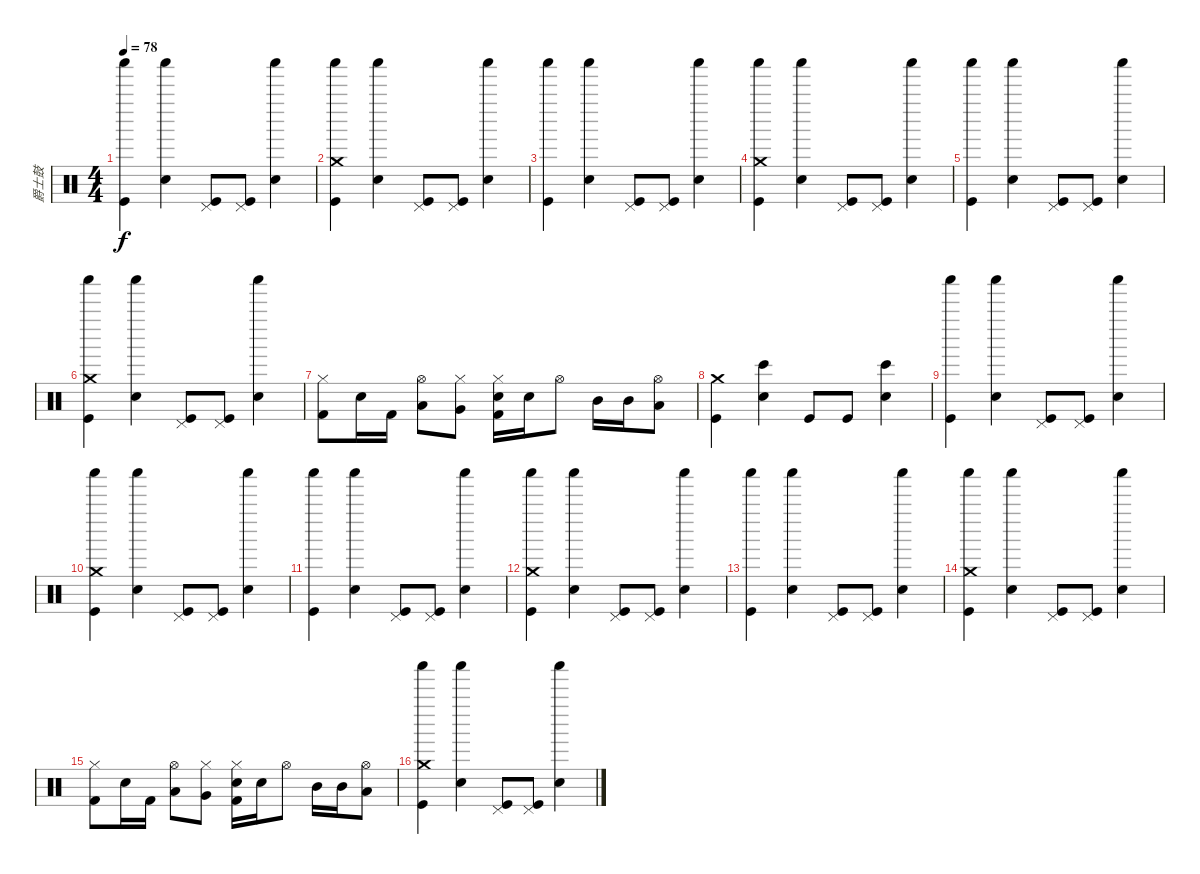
\track ("爵士鼓" "爵士鼓") {instrument percussion}
\staff {score}
\articulation defaults
\ts (4 4)
\tempo 78
\clef neutral
\ks c
("Shaker (hit)" "Kick (hit)").4{dy f} ("Shaker (hit)" "Snare (hit) 2").4 ("Pedal Hi-Hat (hit)" "Kick (hit)").8 ("Pedal Hi-Hat (hit)" "Kick (hit)").8 ("Shaker (hit)" "Snare (hit) 2").4 |
("Crash medium (hit)" "Shaker (hit)" "Kick (hit)").4 ("Shaker (hit)" "Snare (hit) 2").4 ("Pedal Hi-Hat (hit)" "Kick (hit)").8 ("Pedal Hi-Hat (hit)" "Kick (hit)").8 ("Shaker (hit)" "Snare (hit) 2").4 |
("Shaker (hit)" "Kick (hit)").4 ("Shaker (hit)" "Snare (hit) 2").4 ("Pedal Hi-Hat (hit)" "Kick (hit)").8 ("Pedal Hi-Hat (hit)" "Kick (hit)").8 ("Shaker (hit)" "Snare (hit) 2").4 |
("Crash medium (hit)" "Shaker (hit)" "Kick (hit)").4 ("Shaker (hit)" "Snare (hit) 2").4 ("Pedal Hi-Hat (hit)" "Kick (hit)").8 ("Pedal Hi-Hat (hit)" "Kick (hit)").8 ("Shaker (hit)" "Snare (hit) 2").4 |
("Shaker (hit)" "Kick (hit)").4 ("Shaker (hit)" "Snare (hit) 2").4 ("Pedal Hi-Hat (hit)" "Kick (hit)").8 ("Pedal Hi-Hat (hit)" "Kick (hit)").8 ("Shaker (hit)" "Snare (hit) 2").4 |
("Crash medium (hit)" "Shaker (hit)" "Kick (hit)").4 ("Shaker (hit)" "Snare (hit) 2").4 ("Pedal Hi-Hat (hit)" "Kick (hit)").8 ("Pedal Hi-Hat (hit)" "Kick (hit)").8 ("Shaker (hit)" "Snare (hit) 2").4 |
("Hi-Hat (closed)" "Kick (hit) 2").8 "Electric Snare (hit)".16 "Kick (hit) 2".16 ("Hi-Hat (open)" "Low Tom (hit)").8 ("Hi-Hat (closed)" "Very Low Tom (hit)").8 ("Hi-Hat (closed)" "Electric Snare (hit)" "Kick (hit) 2").16 "Electric Snare (hit)".16 "Hi-Hat (open)".8 "Mid Tom (hit)".16 "Mid Tom (hit)".16 ("Hi-Hat (open)" "Low Tom (hit)").8 |
("Crash medium (hit)" "Kick (hit)").4 ("Bongo High (hit)" "Snare (hit) 2").4 "Kick (hit)".8 "Kick (hit)".8 ("Bongo High (hit)" "Snare (hit) 2").4 |
("Shaker (hit)" "Kick (hit)").4 ("Shaker (hit)" "Snare (hit) 2").4 ("Pedal Hi-Hat (hit)" "Kick (hit)").8 ("Pedal Hi-Hat (hit)" "Kick (hit)").8 ("Shaker (hit)" "Snare (hit) 2").4 |
("Crash medium (hit)" "Shaker (hit)" "Kick (hit)").4 ("Shaker (hit)" "Snare (hit) 2").4 ("Pedal Hi-Hat (hit)" "Kick (hit)").8 ("Pedal Hi-Hat (hit)" "Kick (hit)").8 ("Shaker (hit)" "Snare (hit) 2").4 |
("Shaker (hit)" "Kick (hit)").4 ("Shaker (hit)" "Snare (hit) 2").4 ("Pedal Hi-Hat (hit)" "Kick (hit)").8 ("Pedal Hi-Hat (hit)" "Kick (hit)").8 ("Shaker (hit)" "Snare (hit) 2").4 |
("Crash medium (hit)" "Shaker (hit)" "Kick (hit)").4 ("Shaker (hit)" "Snare (hit) 2").4 ("Pedal Hi-Hat (hit)" "Kick (hit)").8 ("Pedal Hi-Hat (hit)" "Kick (hit)").8 ("Shaker (hit)" "Snare (hit) 2").4 |
("Shaker (hit)" "Kick (hit)").4 ("Shaker (hit)" "Snare (hit) 2").4 ("Pedal Hi-Hat (hit)" "Kick (hit)").8 ("Pedal Hi-Hat (hit)" "Kick (hit)").8 ("Shaker (hit)" "Snare (hit) 2").4 |
("Crash medium (hit)" "Shaker (hit)" "Kick (hit)").4 ("Shaker (hit)" "Snare (hit) 2").4 ("Pedal Hi-Hat (hit)" "Kick (hit)").8 ("Pedal Hi-Hat (hit)" "Kick (hit)").8 ("Shaker (hit)" "Snare (hit) 2").4 |
("Hi-Hat (closed)" "Kick (hit) 2").8 "Electric Snare (hit)".16 "Kick (hit) 2".16 ("Hi-Hat (open)" "Low Tom (hit)").8 ("Hi-Hat (closed)" "Very Low Tom (hit)").8 ("Hi-Hat (closed)" "Electric Snare (hit)" "Kick (hit) 2").16 "Electric Snare (hit)".16 "Hi-Hat (open)".8 "Mid Tom (hit)".16 "Mid Tom (hit)".16 ("Hi-Hat (open)" "Low Tom (hit)").8 |
("Crash medium (hit)" "Shaker (hit)" "Kick (hit)").4 ("Shaker (hit)" "Snare (hit) 2").4 ("Pedal Hi-Hat (hit)" "Kick (hit)").8 ("Pedal Hi-Hat (hit)" "Kick (hit)").8 ("Shaker (hit)" "Snare (hit) 2").4
